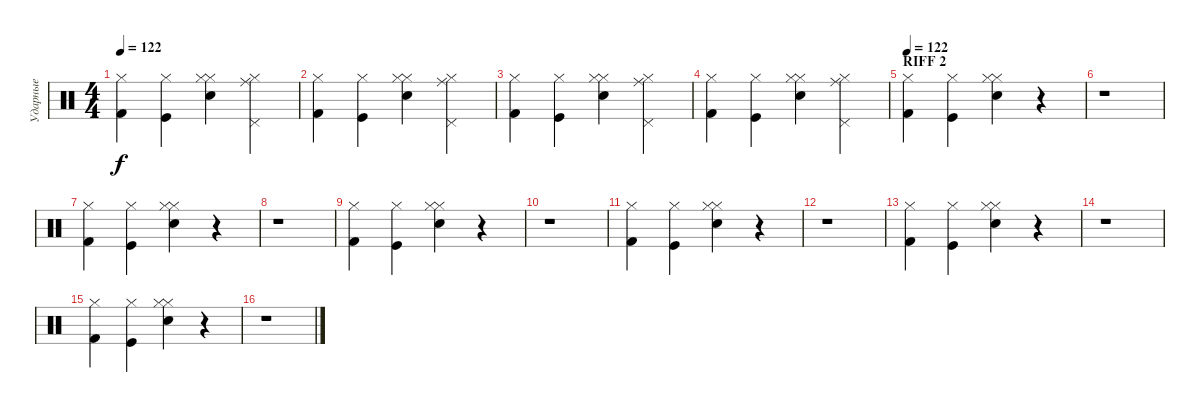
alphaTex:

\track ("Ударные" "Ударные") {instrument percussion}
\staff {score}
\articulation defaults
\ts (4 4)
\tempo 122
\clef neutral
\ks c
("Hi-Hat (closed)" "Kick (hit) 2").4{dy f} ("Hi-Hat (closed)" "Kick (hit)").4 ("Hi-Hat (closed)" "Hi-Hat (closed)" "Electric Snare (hit)").4 ("Hi-Hat (closed)" "Ride (middle)" "Pedal Hi-Hat (hit)").4 |
("Hi-Hat (closed)" "Kick (hit) 2").4 ("Hi-Hat (closed)" "Kick (hit)").4 ("Hi-Hat (closed)" "Hi-Hat (closed)" "Electric Snare (hit)").4 ("Hi-Hat (closed)" "Ride (middle)" "Pedal Hi-Hat (hit)").4 |
("Hi-Hat (closed)" "Kick (hit) 2").4 ("Hi-Hat (closed)" "Kick (hit)").4 ("Hi-Hat (closed)" "Hi-Hat (closed)" "Electric Snare (hit)").4 ("Hi-Hat (closed)" "Ride (middle)" "Pedal Hi-Hat (hit)").4 |
("Hi-Hat (closed)" "Kick (hit) 2").4 ("Hi-Hat (closed)" "Kick (hit)").4 ("Hi-Hat (closed)" "Hi-Hat (closed)" "Electric Snare (hit)").4 ("Hi-Hat (closed)" "Ride (middle)" "Pedal Hi-Hat (hit)").4 |
\section ("" "RIFF 2")
\tempo 122
("Hi-Hat (closed)" "Kick (hit) 2").4 ("Hi-Hat (closed)" "Kick (hit)").4 ("Hi-Hat (closed)" "Hi-Hat (closed)" "Electric Snare (hit)").4 r.4 |
r.1 |
("Hi-Hat (closed)" "Kick (hit) 2").4 ("Hi-Hat (closed)" "Kick (hit)").4 ("Hi-Hat (closed)" "Hi-Hat (closed)" "Electric Snare (hit)").4 r.4 |
r.1 |
("Hi-Hat (closed)" "Kick (hit) 2").4 ("Hi-Hat (closed)" "Kick (hit)").4 ("Hi-Hat (closed)" "Hi-Hat (closed)" "Electric Snare (hit)").4 r.4 |
r.1 |
("Hi-Hat (closed)" "Kick (hit) 2").4 ("Hi-Hat (closed)" "Kick (hit)").4 ("Hi-Hat (closed)" "Hi-Hat (closed)" "Electric Snare (hit)").4 r.4 |
r.1 |
("Hi-Hat (closed)" "Kick (hit) 2").4 ("Hi-Hat (closed)" "Kick (hit)").4 ("Hi-Hat (closed)" "Hi-Hat (closed)" "Electric Snare (hit)").4 r.4 |
r.1 |
("Hi-Hat (closed)" "Kick (hit) 2").4 ("Hi-Hat (closed)" "Kick (hit)").4 ("Hi-Hat (closed)" "Hi-Hat (closed)" "Electric Snare (hit)").4 r.4 |
r.1
